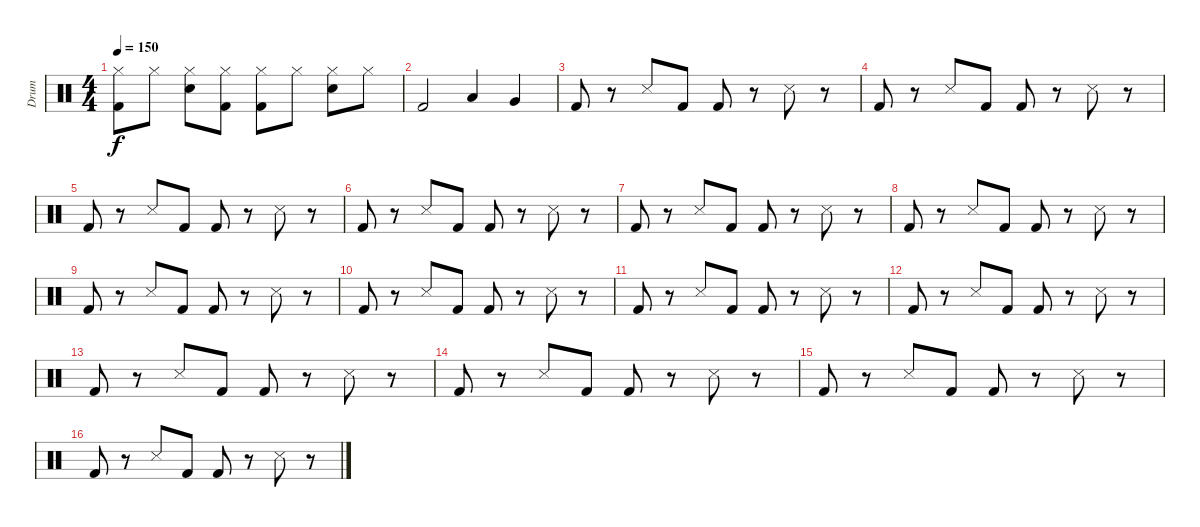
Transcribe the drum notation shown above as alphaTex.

\track ("Drum" "Drum") {instrument percussion}
\staff {score}
\articulation defaults
\ts (4 4)
\tempo 150
\clef neutral
\ks c
("Kick (hit) 2" "Hi-Hat (closed)").8{dy f} "Hi-Hat (closed)".8 ("Hi-Hat (closed)" "Electric Snare (hit)").8 ("Kick (hit) 2" "Hi-Hat (closed)").8 ("Kick (hit) 2" "Hi-Hat (closed)").8 "Hi-Hat (closed)".8 ("Hi-Hat (closed)" "Electric Snare (hit)").8 "Hi-Hat (closed)".8 |
"Kick (hit) 2".2 "Low Tom (hit)".4 "Very Low Tom (hit)".4 |
"Kick (hit) 2".8 r.8 "Snare (side stick) 3".8 "Kick (hit) 2".8 "Kick (hit) 2".8 r.8 "Snare (side stick) 3".8 r.8 |
"Kick (hit) 2".8 r.8 "Snare (side stick) 3".8 "Kick (hit) 2".8 "Kick (hit) 2".8 r.8 "Snare (side stick) 3".8 r.8 |
"Kick (hit) 2".8 r.8 "Snare (side stick) 3".8 "Kick (hit) 2".8 "Kick (hit) 2".8 r.8 "Snare (side stick) 3".8 r.8 |
"Kick (hit) 2".8 r.8 "Snare (side stick) 3".8 "Kick (hit) 2".8 "Kick (hit) 2".8 r.8 "Snare (side stick) 3".8 r.8 |
"Kick (hit) 2".8 r.8 "Snare (side stick) 3".8 "Kick (hit) 2".8 "Kick (hit) 2".8 r.8 "Snare (side stick) 3".8 r.8 |
"Kick (hit) 2".8 r.8 "Snare (side stick) 3".8 "Kick (hit) 2".8 "Kick (hit) 2".8 r.8 "Snare (side stick) 3".8 r.8 |
"Kick (hit) 2".8 r.8 "Snare (side stick) 3".8 "Kick (hit) 2".8 "Kick (hit) 2".8 r.8 "Snare (side stick) 3".8 r.8 |
"Kick (hit) 2".8 r.8 "Snare (side stick) 3".8 "Kick (hit) 2".8 "Kick (hit) 2".8 r.8 "Snare (side stick) 3".8 r.8 |
"Kick (hit) 2".8 r.8 "Snare (side stick) 3".8 "Kick (hit) 2".8 "Kick (hit) 2".8 r.8 "Snare (side stick) 3".8 r.8 |
"Kick (hit) 2".8 r.8 "Snare (side stick) 3".8 "Kick (hit) 2".8 "Kick (hit) 2".8 r.8 "Snare (side stick) 3".8 r.8 |
"Kick (hit) 2".8 r.8 "Snare (side stick) 3".8 "Kick (hit) 2".8 "Kick (hit) 2".8 r.8 "Snare (side stick) 3".8 r.8 |
"Kick (hit) 2".8 r.8 "Snare (side stick) 3".8 "Kick (hit) 2".8 "Kick (hit) 2".8 r.8 "Snare (side stick) 3".8 r.8 |
"Kick (hit) 2".8 r.8 "Snare (side stick) 3".8 "Kick (hit) 2".8 "Kick (hit) 2".8 r.8 "Snare (side stick) 3".8 r.8 |
"Kick (hit) 2".8 r.8 "Snare (side stick) 3".8 "Kick (hit) 2".8 "Kick (hit) 2".8 r.8 "Snare (side stick) 3".8 r.8
